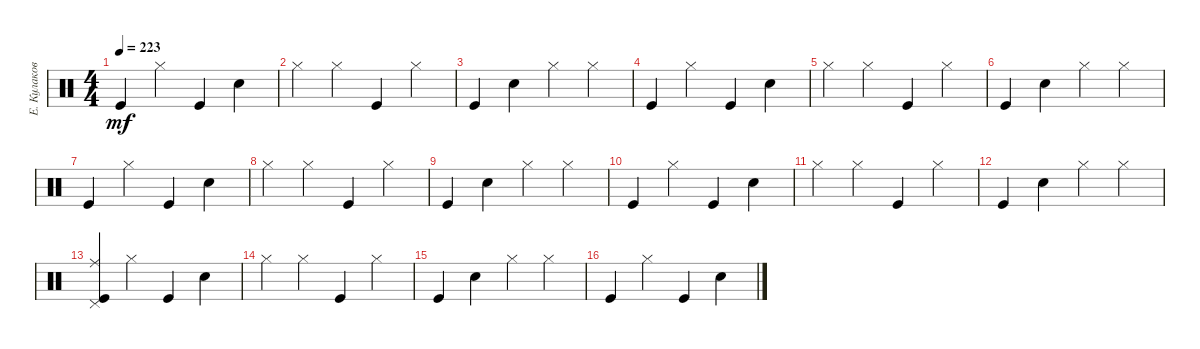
\track ("Е. Кулаков" "Е. Кулаков") {instrument percussion}
\staff {score}
\articulation defaults
\ts (4 4)
\tempo 223
\clef neutral
\ks c "Kick (hit)".4{dy mf} "Hi-Hat (closed)".4 "Kick (hit)".4 "Snare (hit) 2".4
|
"Hi-Hat (closed)".4 "Hi-Hat (closed)".4 "Kick (hit)".4 "Hi-Hat (closed)".4 |
"Kick (hit)".4 "Snare (hit) 2".4 "Hi-Hat (closed)".4 "Hi-Hat (closed)".4 |
"Kick (hit)".4 "Hi-Hat (closed)".4 "Kick (hit)".4 "Snare (hit) 2".4 |
"Hi-Hat (closed)".4 "Hi-Hat (closed)".4 "Kick (hit)".4 "Hi-Hat (closed)".4 |
"Kick (hit)".4 "Snare (hit) 2".4 "Hi-Hat (closed)".4 "Hi-Hat (closed)".4 |
"Kick (hit)".4 "Hi-Hat (closed)".4 "Kick (hit)".4 "Snare (hit) 2".4 |
"Hi-Hat (closed)".4 "Hi-Hat (closed)".4 "Kick (hit)".4 "Hi-Hat (closed)".4 |
"Kick (hit)".4 "Snare (hit) 2".4 "Hi-Hat (closed)".4 "Hi-Hat (closed)".4 |
"Kick (hit)".4 "Hi-Hat (closed)".4 "Kick (hit)".4 "Snare (hit) 2".4 |
"Hi-Hat (closed)".4 "Hi-Hat (closed)".4 "Kick (hit)".4 "Hi-Hat (closed)".4 |
"Kick (hit)".4 "Snare (hit) 2".4 "Hi-Hat (closed)".4 "Hi-Hat (closed)".4 |
("Kick (hit)" "Ride (middle)" "Pedal Hi-Hat (hit)").4 "Hi-Hat (closed)".4 "Kick (hit)".4 "Snare (hit) 2".4 |
"Hi-Hat (closed)".4 "Hi-Hat (closed)".4 "Kick (hit)".4 "Hi-Hat (closed)".4 |
"Kick (hit)".4 "Snare (hit) 2".4 "Hi-Hat (closed)".4 "Hi-Hat (closed)".4 |
"Kick (hit)".4 "Hi-Hat (closed)".4 "Kick (hit)".4 "Snare (hit) 2".4
